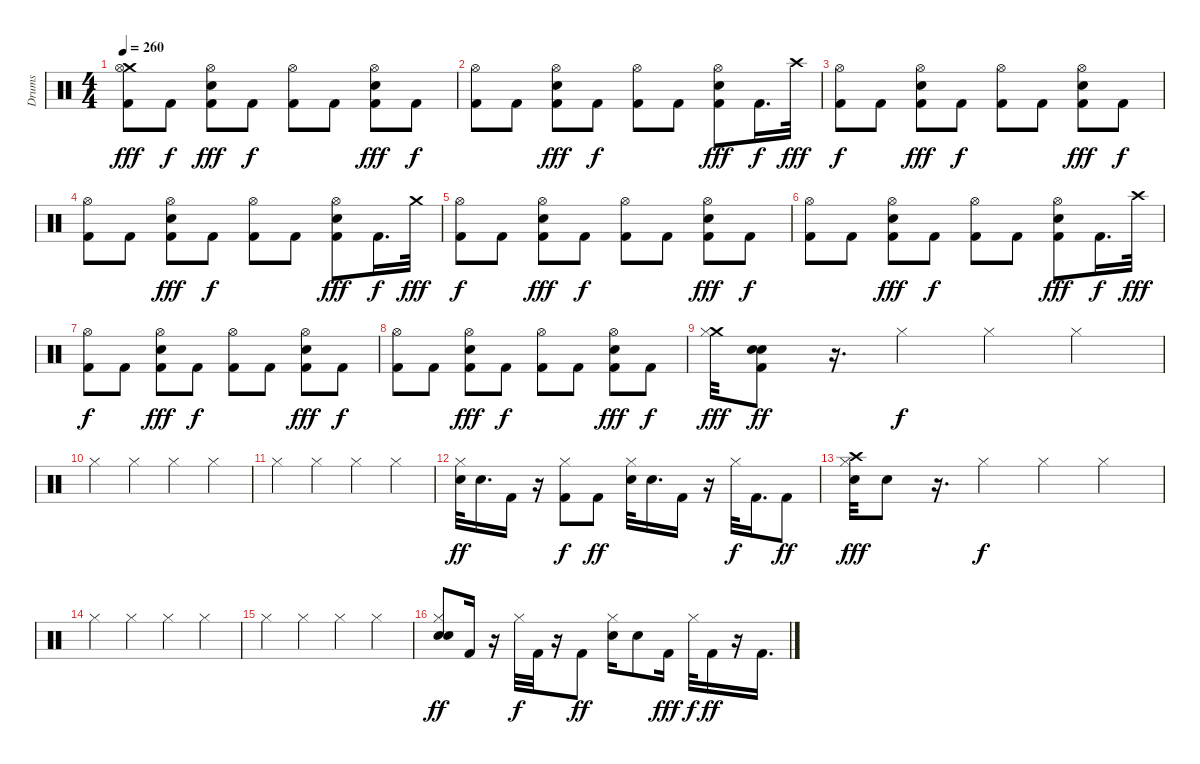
\track ("Drums" "Drums") {instrument percussion}
\staff {score}
\articulation defaults
\ts (4 4)
\tempo 260
\clef neutral
\ks c
("Crash medium (hit)" "Hi-Hat (open)" "Kick (hit) 2").8{dy fff} "Kick (hit) 2".8{dy f} ("Hi-Hat (open)" "Snare (hit) 2" "Kick (hit) 2").8{dy fff} "Kick (hit) 2".8{dy f} ("Hi-Hat (open)" "Kick (hit) 2").8 "Kick (hit) 2".8 ("Hi-Hat (open)" "Snare (hit) 2" "Kick (hit) 2").8{dy fff} "Kick (hit) 2".8{dy f} |
("Hi-Hat (open)" "Kick (hit) 2").8 "Kick (hit) 2".8 ("Hi-Hat (open)" "Snare (hit) 2" "Kick (hit) 2").8{dy fff} "Kick (hit) 2".8{dy f} ("Hi-Hat (open)" "Kick (hit) 2").8 "Kick (hit) 2".8 ("Hi-Hat (open)" "Snare (hit) 2" "Kick (hit) 2").8{dy fff} "Kick (hit) 2".16{d dy f} "Crash high (hit)".32{dy fff} |
("Hi-Hat (open)" "Kick (hit) 2").8{dy f} "Kick (hit) 2".8 ("Hi-Hat (open)" "Snare (hit) 2" "Kick (hit) 2").8{dy fff} "Kick (hit) 2".8{dy f} ("Hi-Hat (open)" "Kick (hit) 2").8 "Kick (hit) 2".8 ("Hi-Hat (open)" "Snare (hit) 2" "Kick (hit) 2").8{dy fff} "Kick (hit) 2".8{dy f} |
("Hi-Hat (open)" "Kick (hit) 2").8 "Kick (hit) 2".8 ("Hi-Hat (open)" "Snare (hit) 2" "Kick (hit) 2").8{dy fff} "Kick (hit) 2".8{dy f} ("Hi-Hat (open)" "Kick (hit) 2").8 "Kick (hit) 2".8 ("Hi-Hat (open)" "Snare (hit) 2" "Kick (hit) 2").8{dy fff} "Kick (hit) 2".16{d dy f} "Crash medium (hit)".32{dy fff} |
("Hi-Hat (open)" "Kick (hit) 2").8{dy f} "Kick (hit) 2".8 ("Hi-Hat (open)" "Snare (hit) 2" "Kick (hit) 2").8{dy fff} "Kick (hit) 2".8{dy f} ("Hi-Hat (open)" "Kick (hit) 2").8 "Kick (hit) 2".8 ("Hi-Hat (open)" "Snare (hit) 2" "Kick (hit) 2").8{dy fff} "Kick (hit) 2".8{dy f} |
("Hi-Hat (open)" "Kick (hit) 2").8 "Kick (hit) 2".8 ("Hi-Hat (open)" "Snare (hit) 2" "Kick (hit) 2").8{dy fff} "Kick (hit) 2".8{dy f} ("Hi-Hat (open)" "Kick (hit) 2").8 "Kick (hit) 2".8 ("Hi-Hat (open)" "Snare (hit) 2" "Kick (hit) 2").8{dy fff} "Kick (hit) 2".16{d dy f} "Crash high (hit)".32{dy fff} |
("Hi-Hat (open)" "Kick (hit) 2").8{dy f} "Kick (hit) 2".8 ("Hi-Hat (open)" "Snare (hit) 2" "Kick (hit) 2").8{dy fff} "Kick (hit) 2".8{dy f} ("Hi-Hat (open)" "Kick (hit) 2").8 "Kick (hit) 2".8 ("Hi-Hat (open)" "Snare (hit) 2" "Kick (hit) 2").8{dy fff} "Kick (hit) 2".8{dy f} |
("Hi-Hat (open)" "Kick (hit) 2").8 "Kick (hit) 2".8 ("Hi-Hat (open)" "Snare (hit) 2" "Kick (hit) 2").8{dy fff} "Kick (hit) 2".8{dy f} ("Hi-Hat (open)" "Kick (hit) 2").8 "Kick (hit) 2".8 ("Hi-Hat (open)" "Snare (hit) 2" "Kick (hit) 2").8{dy fff} "Kick (hit) 2".8{dy f} |
("Crash medium (hit)" "Hi-Hat (closed)").32{dy fff} ("Electric Snare (hit)" "Kick (hit) 2" "Snare (hit) 2").8{dy ff} r.16{d} "Hi-Hat (closed)".4{dy f} "Hi-Hat (closed)".4 "Hi-Hat (closed)".4 |
"Hi-Hat (closed)".4 "Hi-Hat (closed)".4 "Hi-Hat (closed)".4 "Hi-Hat (closed)".4 |
"Hi-Hat (closed)".4 "Hi-Hat (closed)".4 "Hi-Hat (closed)".4 "Hi-Hat (closed)".4 |
("Electric Snare (hit)" "Hi-Hat (closed)").32{dy ff} "Snare (hit) 2".16{d} "Kick (hit) 2".16 r.16 ("Hi-Hat (closed)" "Kick (hit) 2").8{dy f} "Kick (hit) 2".8{dy ff} ("Electric Snare (hit)" "Hi-Hat (closed)").32 "Snare (hit) 2".16{d} "Kick (hit) 2".16 r.16 "Hi-Hat (closed)".32{dy f} "Kick (hit) 2".16{d} "Kick (hit) 2".8{dy ff} |
("Electric Snare (hit)" "Hi-Hat (closed)" "Crash high (hit)").32{dy fff} "Snare (hit) 2".8 r.16{d} "Hi-Hat (closed)".4{dy f} "Hi-Hat (closed)".4 "Hi-Hat (closed)".4 |
"Hi-Hat (closed)".4 "Hi-Hat (closed)".4 "Hi-Hat (closed)".4 "Hi-Hat (closed)".4 |
"Hi-Hat (closed)".4 "Hi-Hat (closed)".4 "Hi-Hat (closed)".4 "Hi-Hat (closed)".4 |
("Electric Snare (hit)" "Hi-Hat (closed)" "Snare (hit) 2").8{dy ff} "Kick (hit) 2".16 r.16 "Hi-Hat (closed)".32{dy f} "Kick (hit) 2".32 r.16 "Kick (hit) 2".8{dy ff} ("Electric Snare (hit)" "Hi-Hat (closed)").16 "Snare (hit) 2".8 "Kick (hit) 2".16{dy fff} "Hi-Hat (closed)".32{dy f} "Kick (hit) 2".16{dy ff} r.16 "Kick (hit) 2".16{d}
